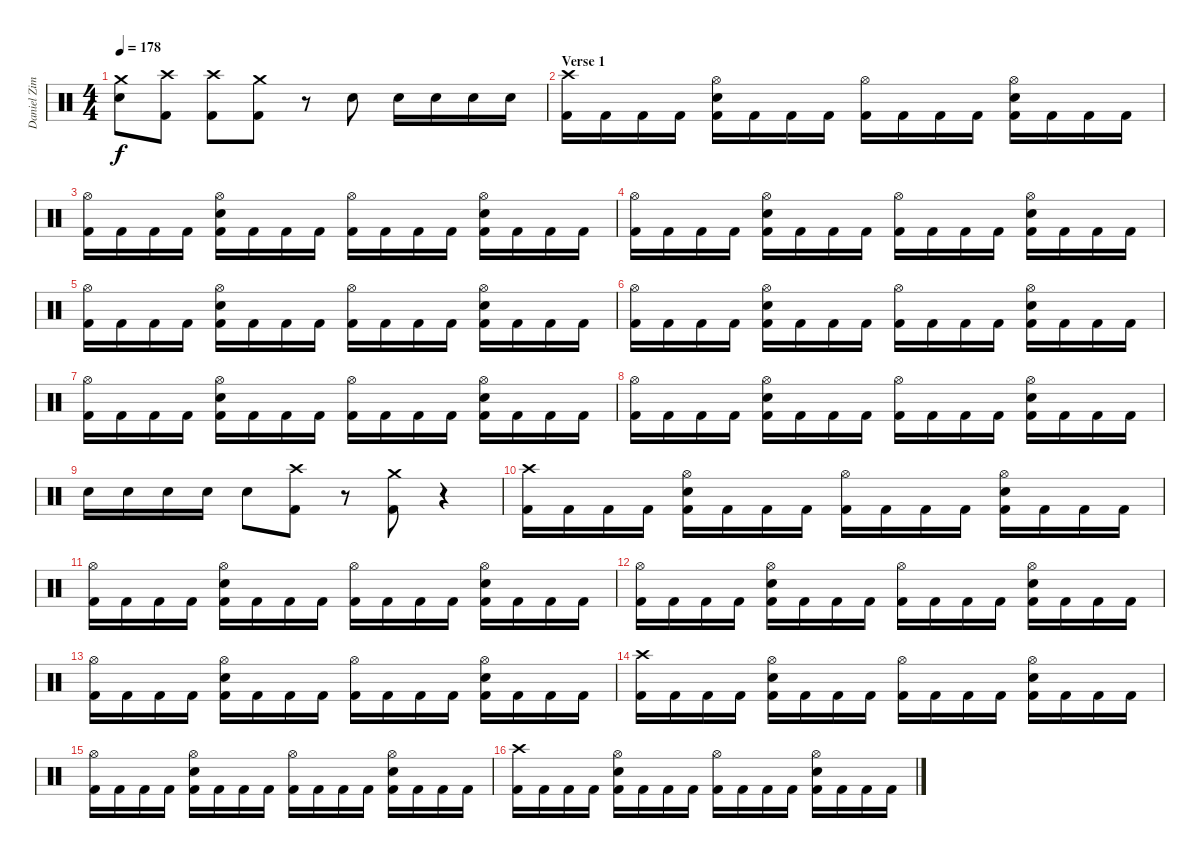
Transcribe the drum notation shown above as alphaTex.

\track ("Daniel Zimmermann" "Daniel Zim") {instrument percussion}
\staff {score}
\articulation defaults
\ts (4 4)
\tempo 178
\clef neutral
\ks c
("Electric Snare (hit)" "Crash medium (hit)").8{dy f} ("Kick (hit) 2" "Crash high (hit)").8 ("Kick (hit) 2" "Crash high (hit)").8 ("Kick (hit) 2" "Crash medium (hit)").8 r.8 "Electric Snare (hit)".8 "Electric Snare (hit)".16 "Electric Snare (hit)".16 "Electric Snare (hit)".16 "Electric Snare (hit)".16 |
\section ("" "Verse 1")
("Kick (hit) 2" "Crash high (hit)").16 "Kick (hit) 2".16 "Kick (hit) 2".16 "Kick (hit) 2".16 ("Kick (hit) 2" "Electric Snare (hit)" "Hi-Hat (open)").16 "Kick (hit) 2".16 "Kick (hit) 2".16 "Kick (hit) 2".16 ("Kick (hit) 2" "Hi-Hat (open)").16 "Kick (hit) 2".16 "Kick (hit) 2".16 "Kick (hit) 2".16 ("Kick (hit) 2" "Electric Snare (hit)" "Hi-Hat (open)").16 "Kick (hit) 2".16 "Kick (hit) 2".16 "Kick (hit) 2".16 |
("Kick (hit) 2" "Hi-Hat (open)").16 "Kick (hit) 2".16 "Kick (hit) 2".16 "Kick (hit) 2".16 ("Kick (hit) 2" "Electric Snare (hit)" "Hi-Hat (open)").16 "Kick (hit) 2".16 "Kick (hit) 2".16 "Kick (hit) 2".16 ("Kick (hit) 2" "Hi-Hat (open)").16 "Kick (hit) 2".16 "Kick (hit) 2".16 "Kick (hit) 2".16 ("Kick (hit) 2" "Electric Snare (hit)" "Hi-Hat (open)").16 "Kick (hit) 2".16 "Kick (hit) 2".16 "Kick (hit) 2".16 |
("Kick (hit) 2" "Hi-Hat (open)").16 "Kick (hit) 2".16 "Kick (hit) 2".16 "Kick (hit) 2".16 ("Kick (hit) 2" "Electric Snare (hit)" "Hi-Hat (open)").16 "Kick (hit) 2".16 "Kick (hit) 2".16 "Kick (hit) 2".16 ("Kick (hit) 2" "Hi-Hat (open)").16 "Kick (hit) 2".16 "Kick (hit) 2".16 "Kick (hit) 2".16 ("Kick (hit) 2" "Electric Snare (hit)" "Hi-Hat (open)").16 "Kick (hit) 2".16 "Kick (hit) 2".16 "Kick (hit) 2".16 |
("Kick (hit) 2" "Hi-Hat (open)").16 "Kick (hit) 2".16 "Kick (hit) 2".16 "Kick (hit) 2".16 ("Kick (hit) 2" "Electric Snare (hit)" "Hi-Hat (open)").16 "Kick (hit) 2".16 "Kick (hit) 2".16 "Kick (hit) 2".16 ("Kick (hit) 2" "Hi-Hat (open)").16 "Kick (hit) 2".16 "Kick (hit) 2".16 "Kick (hit) 2".16 ("Kick (hit) 2" "Electric Snare (hit)" "Hi-Hat (open)").16 "Kick (hit) 2".16 "Kick (hit) 2".16 "Kick (hit) 2".16 |
("Kick (hit) 2" "Hi-Hat (open)").16 "Kick (hit) 2".16 "Kick (hit) 2".16 "Kick (hit) 2".16 ("Kick (hit) 2" "Electric Snare (hit)" "Hi-Hat (open)").16 "Kick (hit) 2".16 "Kick (hit) 2".16 "Kick (hit) 2".16 ("Kick (hit) 2" "Hi-Hat (open)").16 "Kick (hit) 2".16 "Kick (hit) 2".16 "Kick (hit) 2".16 ("Kick (hit) 2" "Electric Snare (hit)" "Hi-Hat (open)").16 "Kick (hit) 2".16 "Kick (hit) 2".16 "Kick (hit) 2".16 |
("Kick (hit) 2" "Hi-Hat (open)").16 "Kick (hit) 2".16 "Kick (hit) 2".16 "Kick (hit) 2".16 ("Kick (hit) 2" "Electric Snare (hit)" "Hi-Hat (open)").16 "Kick (hit) 2".16 "Kick (hit) 2".16 "Kick (hit) 2".16 ("Kick (hit) 2" "Hi-Hat (open)").16 "Kick (hit) 2".16 "Kick (hit) 2".16 "Kick (hit) 2".16 ("Kick (hit) 2" "Electric Snare (hit)" "Hi-Hat (open)").16 "Kick (hit) 2".16 "Kick (hit) 2".16 "Kick (hit) 2".16 |
("Kick (hit) 2" "Hi-Hat (open)").16 "Kick (hit) 2".16 "Kick (hit) 2".16 "Kick (hit) 2".16 ("Kick (hit) 2" "Electric Snare (hit)" "Hi-Hat (open)").16 "Kick (hit) 2".16 "Kick (hit) 2".16 "Kick (hit) 2".16 ("Kick (hit) 2" "Hi-Hat (open)").16 "Kick (hit) 2".16 "Kick (hit) 2".16 "Kick (hit) 2".16 ("Kick (hit) 2" "Electric Snare (hit)" "Hi-Hat (open)").16 "Kick (hit) 2".16 "Kick (hit) 2".16 "Kick (hit) 2".16 |
"Electric Snare (hit)".16 "Electric Snare (hit)".16 "Electric Snare (hit)".16 "Electric Snare (hit)".16 "Electric Snare (hit)".8 ("Kick (hit) 2" "Crash high (hit)").8 r.8 ("Kick (hit) 2" "Crash medium (hit)").8 r.4 |
("Kick (hit) 2" "Crash high (hit)").16 "Kick (hit) 2".16 "Kick (hit) 2".16 "Kick (hit) 2".16 ("Kick (hit) 2" "Electric Snare (hit)" "Hi-Hat (open)").16 "Kick (hit) 2".16 "Kick (hit) 2".16 "Kick (hit) 2".16 ("Kick (hit) 2" "Hi-Hat (open)").16 "Kick (hit) 2".16 "Kick (hit) 2".16 "Kick (hit) 2".16 ("Kick (hit) 2" "Electric Snare (hit)" "Hi-Hat (open)").16 "Kick (hit) 2".16 "Kick (hit) 2".16 "Kick (hit) 2".16 |
("Kick (hit) 2" "Hi-Hat (open)").16 "Kick (hit) 2".16 "Kick (hit) 2".16 "Kick (hit) 2".16 ("Kick (hit) 2" "Electric Snare (hit)" "Hi-Hat (open)").16 "Kick (hit) 2".16 "Kick (hit) 2".16 "Kick (hit) 2".16 ("Kick (hit) 2" "Hi-Hat (open)").16 "Kick (hit) 2".16 "Kick (hit) 2".16 "Kick (hit) 2".16 ("Kick (hit) 2" "Electric Snare (hit)" "Hi-Hat (open)").16 "Kick (hit) 2".16 "Kick (hit) 2".16 "Kick (hit) 2".16 |
("Kick (hit) 2" "Hi-Hat (open)").16 "Kick (hit) 2".16 "Kick (hit) 2".16 "Kick (hit) 2".16 ("Kick (hit) 2" "Electric Snare (hit)" "Hi-Hat (open)").16 "Kick (hit) 2".16 "Kick (hit) 2".16 "Kick (hit) 2".16 ("Kick (hit) 2" "Hi-Hat (open)").16 "Kick (hit) 2".16 "Kick (hit) 2".16 "Kick (hit) 2".16 ("Kick (hit) 2" "Electric Snare (hit)" "Hi-Hat (open)").16 "Kick (hit) 2".16 "Kick (hit) 2".16 "Kick (hit) 2".16 |
("Kick (hit) 2" "Hi-Hat (open)").16 "Kick (hit) 2".16 "Kick (hit) 2".16 "Kick (hit) 2".16 ("Kick (hit) 2" "Electric Snare (hit)" "Hi-Hat (open)").16 "Kick (hit) 2".16 "Kick (hit) 2".16 "Kick (hit) 2".16 ("Kick (hit) 2" "Hi-Hat (open)").16 "Kick (hit) 2".16 "Kick (hit) 2".16 "Kick (hit) 2".16 ("Kick (hit) 2" "Electric Snare (hit)" "Hi-Hat (open)").16 "Kick (hit) 2".16 "Kick (hit) 2".16 "Kick (hit) 2".16 |
("Kick (hit) 2" "Crash high (hit)").16 "Kick (hit) 2".16 "Kick (hit) 2".16 "Kick (hit) 2".16 ("Kick (hit) 2" "Electric Snare (hit)" "Hi-Hat (open)").16 "Kick (hit) 2".16 "Kick (hit) 2".16 "Kick (hit) 2".16 ("Kick (hit) 2" "Hi-Hat (open)").16 "Kick (hit) 2".16 "Kick (hit) 2".16 "Kick (hit) 2".16 ("Kick (hit) 2" "Electric Snare (hit)" "Hi-Hat (open)").16 "Kick (hit) 2".16 "Kick (hit) 2".16 "Kick (hit) 2".16 |
("Kick (hit) 2" "Hi-Hat (open)").16 "Kick (hit) 2".16 "Kick (hit) 2".16 "Kick (hit) 2".16 ("Kick (hit) 2" "Electric Snare (hit)" "Hi-Hat (open)").16 "Kick (hit) 2".16 "Kick (hit) 2".16 "Kick (hit) 2".16 ("Kick (hit) 2" "Hi-Hat (open)").16 "Kick (hit) 2".16 "Kick (hit) 2".16 "Kick (hit) 2".16 ("Kick (hit) 2" "Electric Snare (hit)" "Hi-Hat (open)").16 "Kick (hit) 2".16 "Kick (hit) 2".16 "Kick (hit) 2".16 |
("Kick (hit) 2" "Crash high (hit)").16 "Kick (hit) 2".16 "Kick (hit) 2".16 "Kick (hit) 2".16 ("Kick (hit) 2" "Electric Snare (hit)" "Hi-Hat (open)").16 "Kick (hit) 2".16 "Kick (hit) 2".16 "Kick (hit) 2".16 ("Kick (hit) 2" "Hi-Hat (open)").16 "Kick (hit) 2".16 "Kick (hit) 2".16 "Kick (hit) 2".16 ("Kick (hit) 2" "Electric Snare (hit)" "Hi-Hat (open)").16 "Kick (hit) 2".16 "Kick (hit) 2".16 "Kick (hit) 2".16
